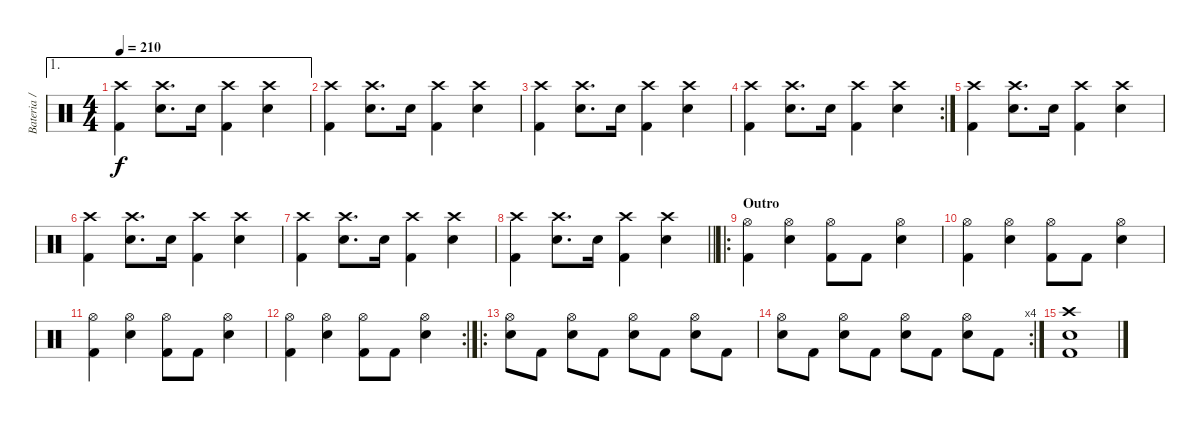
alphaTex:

\track ("Bateria / Percusión" "Bateria / ") {instrument percussion}
\staff {score}
\articulation defaults
\ae 1
\ts (4 4)
\tempo 210
\clef neutral
\ks c
("Crash high (hit)" "Kick (hit) 2").4{dy f} ("Crash high (hit)" "Electric Snare (hit)").8{d} "Electric Snare (hit)".16 ("Crash high (hit)" "Kick (hit) 2").4 ("Crash high (hit)" "Electric Snare (hit)").4 |
("Crash high (hit)" "Kick (hit) 2").4 ("Crash high (hit)" "Electric Snare (hit)").8{d} "Electric Snare (hit)".16 ("Crash high (hit)" "Kick (hit) 2").4 ("Crash high (hit)" "Electric Snare (hit)").4 |
("Crash high (hit)" "Kick (hit) 2").4 ("Crash high (hit)" "Electric Snare (hit)").8{d} "Electric Snare (hit)".16 ("Crash high (hit)" "Kick (hit) 2").4 ("Crash high (hit)" "Electric Snare (hit)").4 |
\rc 2
("Crash high (hit)" "Kick (hit) 2").4 ("Crash high (hit)" "Electric Snare (hit)").8{d} "Electric Snare (hit)".16 ("Crash high (hit)" "Kick (hit) 2").4 ("Crash high (hit)" "Electric Snare (hit)").4 |
("Crash high (hit)" "Kick (hit) 2").4 ("Crash high (hit)" "Electric Snare (hit)").8{d} "Electric Snare (hit)".16 ("Crash high (hit)" "Kick (hit) 2").4 ("Crash high (hit)" "Electric Snare (hit)").4 |
("Crash high (hit)" "Kick (hit) 2").4 ("Crash high (hit)" "Electric Snare (hit)").8{d} "Electric Snare (hit)".16 ("Crash high (hit)" "Kick (hit) 2").4 ("Crash high (hit)" "Electric Snare (hit)").4 |
("Crash high (hit)" "Kick (hit) 2").4 ("Crash high (hit)" "Electric Snare (hit)").8{d} "Electric Snare (hit)".16 ("Crash high (hit)" "Kick (hit) 2").4 ("Crash high (hit)" "Electric Snare (hit)").4 |
\barLineRight lightlight
("Crash high (hit)" "Kick (hit) 2").4 ("Crash high (hit)" "Electric Snare (hit)").8{d} "Electric Snare (hit)".16 ("Crash high (hit)" "Kick (hit) 2").4 ("Crash high (hit)" "Electric Snare (hit)").4 |
\ro
\section ("" "Outro")
("Hi-Hat (open)" "Kick (hit) 2").4 ("Hi-Hat (open)" "Electric Snare (hit)").4 ("Hi-Hat (open)" "Kick (hit) 2").8 "Kick (hit) 2".8 ("Hi-Hat (open)" "Electric Snare (hit)").4 |
("Hi-Hat (open)" "Kick (hit) 2").4 ("Hi-Hat (open)" "Electric Snare (hit)").4 ("Hi-Hat (open)" "Kick (hit) 2").8 "Kick (hit) 2".8 ("Hi-Hat (open)" "Electric Snare (hit)").4 |
("Hi-Hat (open)" "Kick (hit) 2").4 ("Hi-Hat (open)" "Electric Snare (hit)").4 ("Hi-Hat (open)" "Kick (hit) 2").8 "Kick (hit) 2".8 ("Hi-Hat (open)" "Electric Snare (hit)").4 |
\rc 2
("Hi-Hat (open)" "Kick (hit) 2").4 ("Hi-Hat (open)" "Electric Snare (hit)").4 ("Hi-Hat (open)" "Kick (hit) 2").8 "Kick (hit) 2".8 ("Hi-Hat (open)" "Electric Snare (hit)").4 |
\ro
("Hi-Hat (open)" "Electric Snare (hit)").8 "Kick (hit) 2".8 ("Hi-Hat (open)" "Electric Snare (hit)").8 "Kick (hit) 2".8 ("Hi-Hat (open)" "Electric Snare (hit)").8 "Kick (hit) 2".8 ("Hi-Hat (open)" "Electric Snare (hit)").8 "Kick (hit) 2".8 |
\rc 4
("Hi-Hat (open)" "Electric Snare (hit)").8 "Kick (hit) 2".8 ("Hi-Hat (open)" "Electric Snare (hit)").8 "Kick (hit) 2".8 ("Hi-Hat (open)" "Electric Snare (hit)").8 "Kick (hit) 2".8 ("Hi-Hat (open)" "Electric Snare (hit)").8 "Kick (hit) 2".8 |
("Crash high (hit)" "Electric Snare (hit)" "Kick (hit) 2").1
